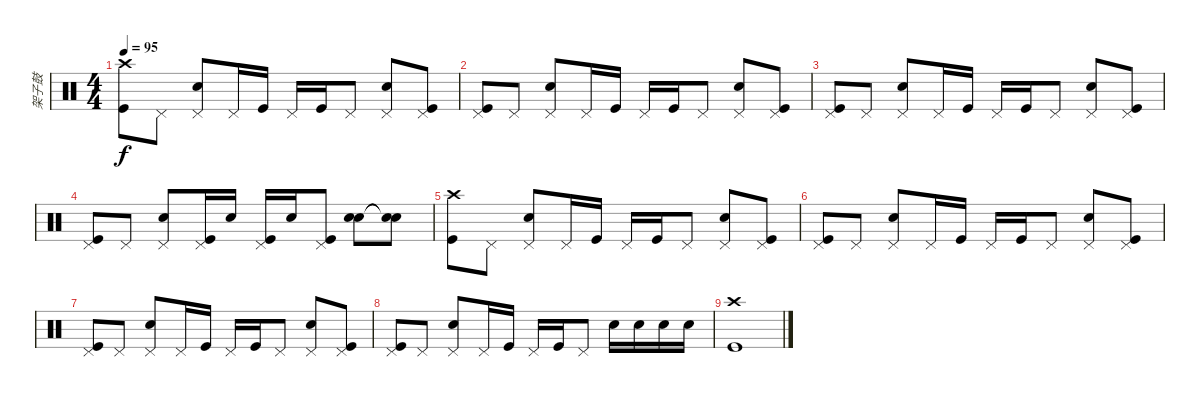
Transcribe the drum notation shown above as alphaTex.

\track ("架子鼓" "架子鼓") {instrument percussion}
\staff {score}
\articulation defaults
\ts (4 4)
\tempo 95
\clef neutral
\ks c
("Kick (hit)" "Crash high (hit)").8{dy f} "Pedal Hi-Hat (hit)".8 ("Snare (hit) 2" "Pedal Hi-Hat (hit)").8 "Pedal Hi-Hat (hit)".16 "Kick (hit)".16 "Pedal Hi-Hat (hit)".16 "Kick (hit)".16 "Pedal Hi-Hat (hit)".8 ("Snare (hit) 2" "Pedal Hi-Hat (hit)").8 ("Kick (hit)" "Pedal Hi-Hat (hit)").8 |
("Kick (hit)" "Pedal Hi-Hat (hit)").8 "Pedal Hi-Hat (hit)".8 ("Snare (hit) 2" "Pedal Hi-Hat (hit)").8 "Pedal Hi-Hat (hit)".16 "Kick (hit)".16 "Pedal Hi-Hat (hit)".16 "Kick (hit)".16 "Pedal Hi-Hat (hit)".8 ("Snare (hit) 2" "Pedal Hi-Hat (hit)").8 ("Kick (hit)" "Pedal Hi-Hat (hit)").8 |
("Kick (hit)" "Pedal Hi-Hat (hit)").8 "Pedal Hi-Hat (hit)".8 ("Snare (hit) 2" "Pedal Hi-Hat (hit)").8 "Pedal Hi-Hat (hit)".16 "Kick (hit)".16 "Pedal Hi-Hat (hit)".16 "Kick (hit)".16 "Pedal Hi-Hat (hit)".8 ("Snare (hit) 2" "Pedal Hi-Hat (hit)").8 ("Kick (hit)" "Pedal Hi-Hat (hit)").8 |
("Kick (hit)" "Pedal Hi-Hat (hit)").8 "Pedal Hi-Hat (hit)".8 ("Snare (hit) 2" "Pedal Hi-Hat (hit)").8 ("Kick (hit)" "Pedal Hi-Hat (hit)").16 "Snare (hit) 2".16 ("Kick (hit)" "Pedal Hi-Hat (hit)").16 "Snare (hit) 2".16 ("Kick (hit)" "Pedal Hi-Hat (hit)").8 ("Snare (hit) 2" "Snare (hit) 2").8 ("Snare (hit)"{t} "Snare (hit)"{t}).8 |
("Kick (hit)" "Crash high (hit)").8 "Pedal Hi-Hat (hit)".8 ("Snare (hit) 2" "Pedal Hi-Hat (hit)").8 "Pedal Hi-Hat (hit)".16 "Kick (hit)".16 "Pedal Hi-Hat (hit)".16 "Kick (hit)".16 "Pedal Hi-Hat (hit)".8 ("Snare (hit) 2" "Pedal Hi-Hat (hit)").8 ("Kick (hit)" "Pedal Hi-Hat (hit)").8 |
("Kick (hit)" "Pedal Hi-Hat (hit)").8 "Pedal Hi-Hat (hit)".8 ("Snare (hit) 2" "Pedal Hi-Hat (hit)").8 "Pedal Hi-Hat (hit)".16 "Kick (hit)".16 "Pedal Hi-Hat (hit)".16 "Kick (hit)".16 "Pedal Hi-Hat (hit)".8 ("Snare (hit) 2" "Pedal Hi-Hat (hit)").8 ("Kick (hit)" "Pedal Hi-Hat (hit)").8 |
("Kick (hit)" "Pedal Hi-Hat (hit)").8 "Pedal Hi-Hat (hit)".8 ("Snare (hit) 2" "Pedal Hi-Hat (hit)").8 "Pedal Hi-Hat (hit)".16 "Kick (hit)".16 "Pedal Hi-Hat (hit)".16 "Kick (hit)".16 "Pedal Hi-Hat (hit)".8 ("Snare (hit) 2" "Pedal Hi-Hat (hit)").8 ("Kick (hit)" "Pedal Hi-Hat (hit)").8 |
("Kick (hit)" "Pedal Hi-Hat (hit)").8 "Pedal Hi-Hat (hit)".8 ("Snare (hit) 2" "Pedal Hi-Hat (hit)").8 "Pedal Hi-Hat (hit)".16 "Kick (hit)".16 "Pedal Hi-Hat (hit)".16 "Kick (hit)".16 "Pedal Hi-Hat (hit)".8 "Snare (hit) 2".16 "Snare (hit) 2".16 "Snare (hit) 2".16 "Snare (hit) 2".16 |
("Kick (hit)" "Crash high (hit)").1
